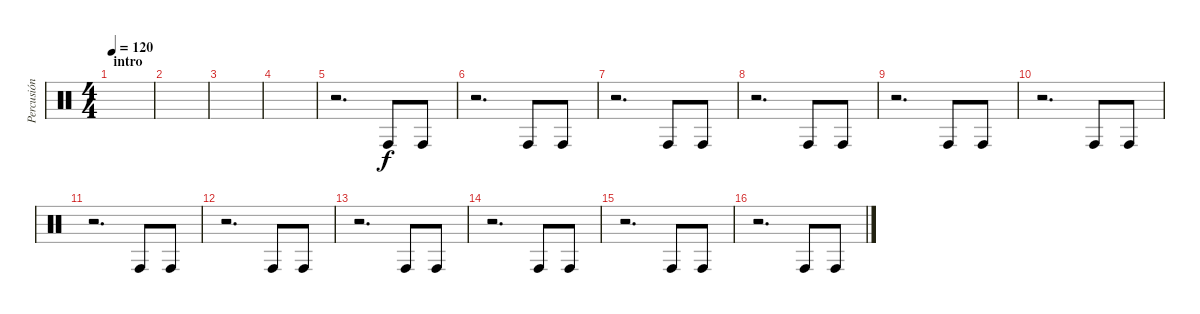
\track ("Percusión" "Percusión") {instrument percussion}
\staff {score}
\articulation defaults
\ts (4 4)
\section ("" "intro")
\tempo 120
\clef neutral
\ks c
|
|
|
|
r.2{d} "Conga high (hit)".8 "Conga high (hit)".8 |
r.2{d} "Conga high (hit)".8 "Conga high (hit)".8 |
r.2{d} "Conga high (hit)".8 "Conga high (hit)".8 |
r.2{d} "Conga high (hit)".8 "Conga high (hit)".8 |
r.2{d} "Conga high (hit)".8 "Conga high (hit)".8 |
r.2{d} "Conga high (hit)".8 "Conga high (hit)".8 |
r.2{d} "Conga high (hit)".8 "Conga high (hit)".8 |
r.2{d} "Conga high (hit)".8 "Conga high (hit)".8 |
r.2{d} "Conga high (hit)".8 "Conga high (hit)".8 |
r.2{d} "Conga high (hit)".8 "Conga high (hit)".8 |
r.2{d} "Conga high (hit)".8 "Conga high (hit)".8 |
r.2{d} "Conga high (hit)".8 "Conga high (hit)".8
